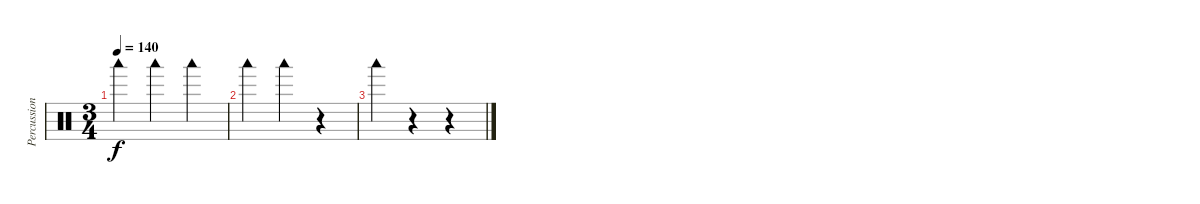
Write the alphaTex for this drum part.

\track ("Percussions" "Percussion") {instrument percussion}
\staff {score}
\articulation defaults
\ts (3 4)
\tempo 140
\clef neutral
\ks c "Woodblock low (hit)".4{dy f} "Woodblock low (hit)".4 "Woodblock low (hit)".4
|
"Woodblock low (hit)".4 "Woodblock low (hit)".4 r.4 |
"Woodblock low (hit)".4 r.4 r.4
